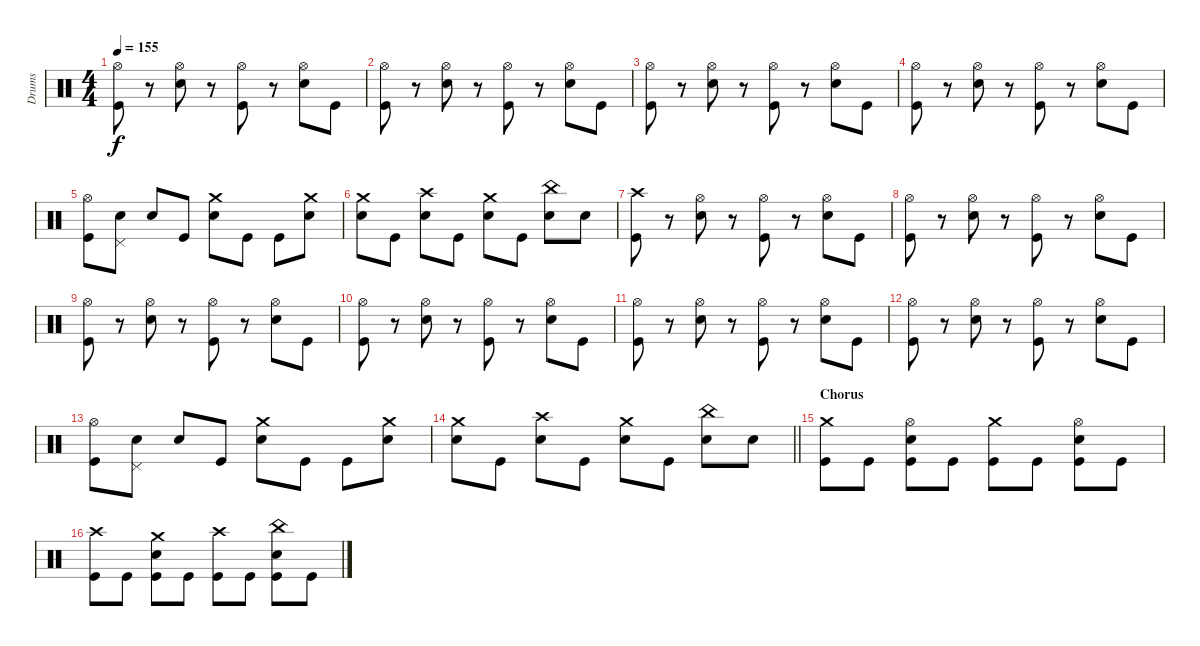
\track ("Drums" "Drums") {instrument percussion}
\staff {score}
\articulation defaults
\ts (4 4)
\tempo 155
\clef neutral
\ks c
("Hi-Hat (open)" "Kick (hit)").8{dy f} r.8 ("Hi-Hat (open)" "Electric Snare (hit)").8 r.8 ("Hi-Hat (open)" "Kick (hit)").8 r.8 ("Hi-Hat (open)" "Electric Snare (hit)").8 "Kick (hit)".8 |
("Hi-Hat (open)" "Kick (hit)").8 r.8 ("Hi-Hat (open)" "Electric Snare (hit)").8 r.8 ("Hi-Hat (open)" "Kick (hit)").8 r.8 ("Hi-Hat (open)" "Electric Snare (hit)").8 "Kick (hit)".8 |
("Hi-Hat (open)" "Kick (hit)").8 r.8 ("Hi-Hat (open)" "Electric Snare (hit)").8 r.8 ("Hi-Hat (open)" "Kick (hit)").8 r.8 ("Hi-Hat (open)" "Electric Snare (hit)").8 "Kick (hit)".8 |
("Hi-Hat (open)" "Kick (hit)").8 r.8 ("Hi-Hat (open)" "Electric Snare (hit)").8 r.8 ("Hi-Hat (open)" "Kick (hit)").8 r.8 ("Hi-Hat (open)" "Electric Snare (hit)").8 "Kick (hit)".8 |
("Hi-Hat (open)" "Kick (hit)").8 ("Pedal Hi-Hat (hit)" "Electric Snare (hit)").8 "Electric Snare (hit)".8 "Kick (hit)".8 ("Crash medium (hit)" "Electric Snare (hit)").8 "Kick (hit)".8 "Kick (hit)".8 ("Crash medium (hit)" "Electric Snare (hit)").8 |
("Crash medium (hit)" "Electric Snare (hit)").8 "Kick (hit)".8 ("Crash high (hit)" "Electric Snare (hit)").8 "Kick (hit)".8 ("Crash medium (hit)" "Electric Snare (hit)").8 "Kick (hit)".8 ("China (hit)" "Electric Snare (hit)").8 "Electric Snare (hit)".8 |
("Crash high (hit)" "Kick (hit)").8 r.8 ("Hi-Hat (open)" "Electric Snare (hit)").8 r.8 ("Hi-Hat (open)" "Kick (hit)").8 r.8 ("Hi-Hat (open)" "Electric Snare (hit)").8 "Kick (hit)".8 |
("Hi-Hat (open)" "Kick (hit)").8 r.8 ("Hi-Hat (open)" "Electric Snare (hit)").8 r.8 ("Hi-Hat (open)" "Kick (hit)").8 r.8 ("Hi-Hat (open)" "Electric Snare (hit)").8 "Kick (hit)".8 |
("Hi-Hat (open)" "Kick (hit)").8 r.8 ("Hi-Hat (open)" "Electric Snare (hit)").8 r.8 ("Hi-Hat (open)" "Kick (hit)").8 r.8 ("Hi-Hat (open)" "Electric Snare (hit)").8 "Kick (hit)".8 |
("Hi-Hat (open)" "Kick (hit)").8 r.8 ("Hi-Hat (open)" "Electric Snare (hit)").8 r.8 ("Hi-Hat (open)" "Kick (hit)").8 r.8 ("Hi-Hat (open)" "Electric Snare (hit)").8 "Kick (hit)".8 |
("Hi-Hat (open)" "Kick (hit)").8 r.8 ("Hi-Hat (open)" "Electric Snare (hit)").8 r.8 ("Hi-Hat (open)" "Kick (hit)").8 r.8 ("Hi-Hat (open)" "Electric Snare (hit)").8 "Kick (hit)".8 |
("Hi-Hat (open)" "Kick (hit)").8 r.8 ("Hi-Hat (open)" "Electric Snare (hit)").8 r.8 ("Hi-Hat (open)" "Kick (hit)").8 r.8 ("Hi-Hat (open)" "Electric Snare (hit)").8 "Kick (hit)".8 |
("Hi-Hat (open)" "Kick (hit)").8 ("Pedal Hi-Hat (hit)" "Electric Snare (hit)").8 "Electric Snare (hit)".8 "Kick (hit)".8 ("Crash medium (hit)" "Electric Snare (hit)").8 "Kick (hit)".8 "Kick (hit)".8 ("Crash medium (hit)" "Electric Snare (hit)").8 |
\barLineRight lightlight
("Crash medium (hit)" "Electric Snare (hit)").8 "Kick (hit)".8 ("Crash high (hit)" "Electric Snare (hit)").8 "Kick (hit)".8 ("Crash medium (hit)" "Electric Snare (hit)").8 "Kick (hit)".8 ("China (hit)" "Electric Snare (hit)").8 "Electric Snare (hit)".8 |
\section ("" "Chorus")
("Crash medium (hit)" "Kick (hit)").8 "Kick (hit)".8 ("Hi-Hat (open)" "Electric Snare (hit)" "Kick (hit)").8 "Kick (hit)".8 ("Crash medium (hit)" "Kick (hit)").8 "Kick (hit)".8 ("Hi-Hat (open)" "Electric Snare (hit)" "Kick (hit)").8 "Kick (hit)".8 |
("Crash high (hit)" "Kick (hit)").8 "Kick (hit)".8 ("Crash medium (hit)" "Electric Snare (hit)" "Kick (hit)").8 "Kick (hit)".8 ("Crash high (hit)" "Kick (hit)").8 "Kick (hit)".8 ("China (hit)" "Electric Snare (hit)" "Kick (hit)").8 "Kick (hit)".8
